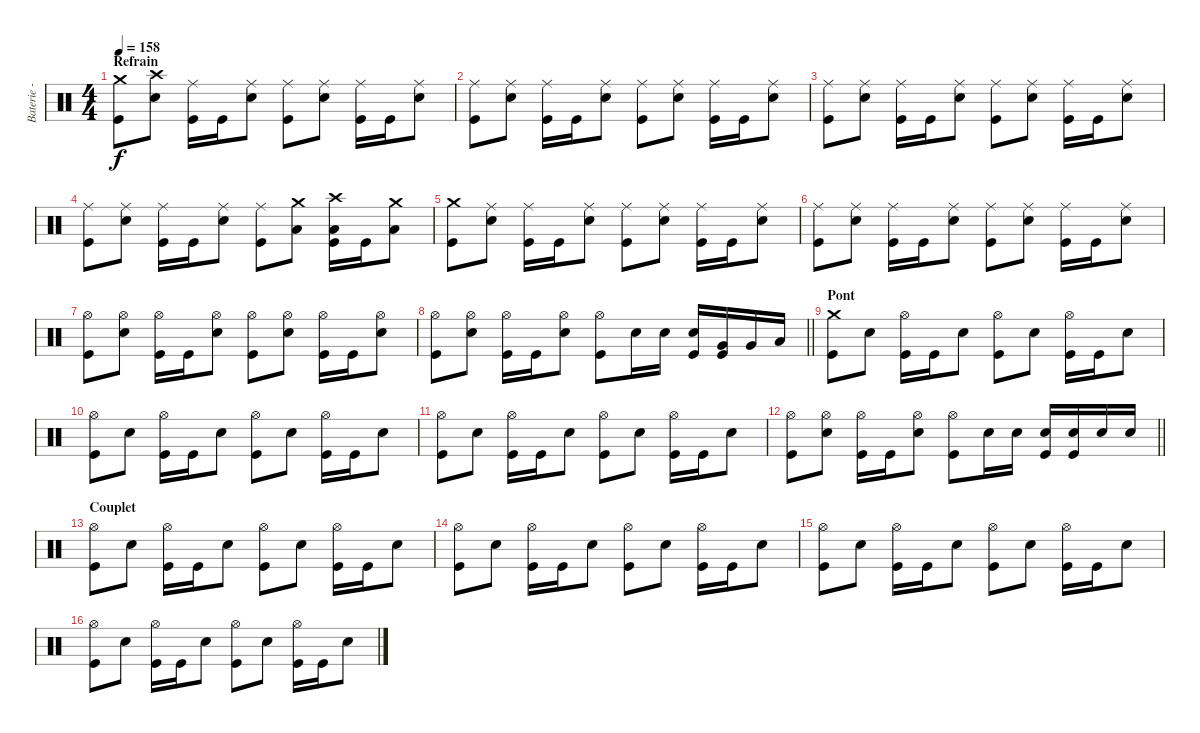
\track ("Baterie - Alex" "Baterie - ") {instrument percussion}
\staff {score}
\articulation defaults
\ts (4 4)
\section ("" "Refrain")
\tempo 158
\clef neutral
\ks c
("Crash medium (hit)" "Kick (hit)").8{dy f} ("Crash high (hit)" "Electric Snare (hit)").8 ("Ride (middle)" "Kick (hit)").16 "Kick (hit)".16 ("Ride (middle)" "Electric Snare (hit)").8 ("Ride (middle)" "Kick (hit)").8 ("Ride (middle)" "Electric Snare (hit)").8 ("Ride (middle)" "Kick (hit)").16 "Kick (hit)".16 ("Ride (middle)" "Electric Snare (hit)").8 |
("Ride (middle)" "Kick (hit)").8 ("Ride (middle)" "Electric Snare (hit)").8 ("Ride (middle)" "Kick (hit)").16 "Kick (hit)".16 ("Ride (middle)" "Electric Snare (hit)").8 ("Ride (middle)" "Kick (hit)").8 ("Ride (middle)" "Electric Snare (hit)").8 ("Ride (middle)" "Kick (hit)").16 "Kick (hit)".16 ("Ride (middle)" "Electric Snare (hit)").8 |
("Ride (middle)" "Kick (hit)").8 ("Ride (middle)" "Electric Snare (hit)").8 ("Ride (middle)" "Kick (hit)").16 "Kick (hit)".16 ("Ride (middle)" "Electric Snare (hit)").8 ("Ride (middle)" "Kick (hit)").8 ("Ride (middle)" "Electric Snare (hit)").8 ("Ride (middle)" "Kick (hit)").16 "Kick (hit)".16 ("Ride (middle)" "Electric Snare (hit)").8 |
("Ride (middle)" "Kick (hit)").8 ("Ride (middle)" "Electric Snare (hit)").8 ("Ride (middle)" "Kick (hit)").16 "Kick (hit)".16 ("Ride (middle)" "Electric Snare (hit)").8 ("Ride (middle)" "Kick (hit)").8 ("Crash medium (hit)" "Low Floor Tom (hit)").8 ("Crash high (hit)" "Low Floor Tom (hit)" "Kick (hit)").16 "Kick (hit)".16 ("Crash medium (hit)" "Low Floor Tom (hit)").8 |
("Crash medium (hit)" "Kick (hit)").8 ("Ride (middle)" "Electric Snare (hit)").8 ("Ride (middle)" "Kick (hit)").16 "Kick (hit)".16 ("Ride (middle)" "Electric Snare (hit)").8 ("Ride (middle)" "Kick (hit)").8 ("Ride (middle)" "Electric Snare (hit)").8 ("Ride (middle)" "Kick (hit)").16 "Kick (hit)".16 ("Ride (middle)" "Electric Snare (hit)").8 |
("Ride (middle)" "Kick (hit)").8 ("Ride (middle)" "Electric Snare (hit)").8 ("Ride (middle)" "Kick (hit)").16 "Kick (hit)".16 ("Ride (middle)" "Electric Snare (hit)").8 ("Ride (middle)" "Kick (hit)").8 ("Ride (middle)" "Electric Snare (hit)").8 ("Ride (middle)" "Kick (hit)").16 "Kick (hit)".16 ("Ride (middle)" "Electric Snare (hit)").8 |
("Hi-Hat (open)" "Kick (hit)").8 ("Hi-Hat (open)" "Electric Snare (hit)").8 ("Hi-Hat (open)" "Kick (hit)").16 "Kick (hit)".16 ("Hi-Hat (open)" "Electric Snare (hit)").8 ("Hi-Hat (open)" "Kick (hit)").8 ("Hi-Hat (open)" "Electric Snare (hit)").8 ("Hi-Hat (open)" "Kick (hit)").16 "Kick (hit)".16 ("Hi-Hat (open)" "Electric Snare (hit)").8 |
\barLineRight lightlight
("Hi-Hat (open)" "Kick (hit)").8 ("Hi-Hat (open)" "Electric Snare (hit)").8 ("Hi-Hat (open)" "Kick (hit)").16 "Kick (hit)".16 ("Hi-Hat (open)" "Electric Snare (hit)").8 ("Hi-Hat (open)" "Kick (hit)").8 "Electric Snare (hit)".16 "Electric Snare (hit)".16 ("Electric Snare (hit)" "Kick (hit)").16 ("Very Low Tom (hit)" "Kick (hit)").16 "Very Low Tom (hit)".16 "Low Floor Tom (hit)".16 |
\section ("" "Pont")
("Crash medium (hit)" "Kick (hit)").8 "Electric Snare (hit)".8 ("Hi-Hat (open)" "Kick (hit)").16 "Kick (hit)".16 "Electric Snare (hit)".8 ("Hi-Hat (open)" "Kick (hit)").8 "Electric Snare (hit)".8 ("Hi-Hat (open)" "Kick (hit)").16 "Kick (hit)".16 "Electric Snare (hit)".8 |
("Hi-Hat (open)" "Kick (hit)").8 "Electric Snare (hit)".8 ("Hi-Hat (open)" "Kick (hit)").16 "Kick (hit)".16 "Electric Snare (hit)".8 ("Hi-Hat (open)" "Kick (hit)").8 "Electric Snare (hit)".8 ("Hi-Hat (open)" "Kick (hit)").16 "Kick (hit)".16 "Electric Snare (hit)".8 |
("Hi-Hat (open)" "Kick (hit)").8 "Electric Snare (hit)".8 ("Hi-Hat (open)" "Kick (hit)").16 "Kick (hit)".16 "Electric Snare (hit)".8 ("Hi-Hat (open)" "Kick (hit)").8 "Electric Snare (hit)".8 ("Hi-Hat (open)" "Kick (hit)").16 "Kick (hit)".16 "Electric Snare (hit)".8 |
\barLineRight lightlight
("Hi-Hat (open)" "Kick (hit)").8 ("Hi-Hat (open)" "Electric Snare (hit)").8 ("Hi-Hat (open)" "Kick (hit)").16 "Kick (hit)".16 ("Hi-Hat (open)" "Electric Snare (hit)").8 ("Hi-Hat (open)" "Kick (hit)").8 "Electric Snare (hit)".16 "Electric Snare (hit)".16 ("Electric Snare (hit)" "Kick (hit)").16 ("Electric Snare (hit)" "Kick (hit)").16 "Electric Snare (hit)".16 "Electric Snare (hit)".16 |
\section ("" "Couplet")
("Hi-Hat (open)" "Kick (hit)").8 "Electric Snare (hit)".8 ("Hi-Hat (open)" "Kick (hit)").16 "Kick (hit)".16 "Electric Snare (hit)".8 ("Hi-Hat (open)" "Kick (hit)").8 "Electric Snare (hit)".8 ("Hi-Hat (open)" "Kick (hit)").16 "Kick (hit)".16 "Electric Snare (hit)".8 |
("Hi-Hat (open)" "Kick (hit)").8 "Electric Snare (hit)".8 ("Hi-Hat (open)" "Kick (hit)").16 "Kick (hit)".16 "Electric Snare (hit)".8 ("Hi-Hat (open)" "Kick (hit)").8 "Electric Snare (hit)".8 ("Hi-Hat (open)" "Kick (hit)").16 "Kick (hit)".16 "Electric Snare (hit)".8 |
("Hi-Hat (open)" "Kick (hit)").8 "Electric Snare (hit)".8 ("Hi-Hat (open)" "Kick (hit)").16 "Kick (hit)".16 "Electric Snare (hit)".8 ("Hi-Hat (open)" "Kick (hit)").8 "Electric Snare (hit)".8 ("Hi-Hat (open)" "Kick (hit)").16 "Kick (hit)".16 "Electric Snare (hit)".8 |
("Hi-Hat (open)" "Kick (hit)").8 "Electric Snare (hit)".8 ("Hi-Hat (open)" "Kick (hit)").16 "Kick (hit)".16 "Electric Snare (hit)".8 ("Hi-Hat (open)" "Kick (hit)").8 "Electric Snare (hit)".8 ("Hi-Hat (open)" "Kick (hit)").16 "Kick (hit)".16 "Electric Snare (hit)".8
